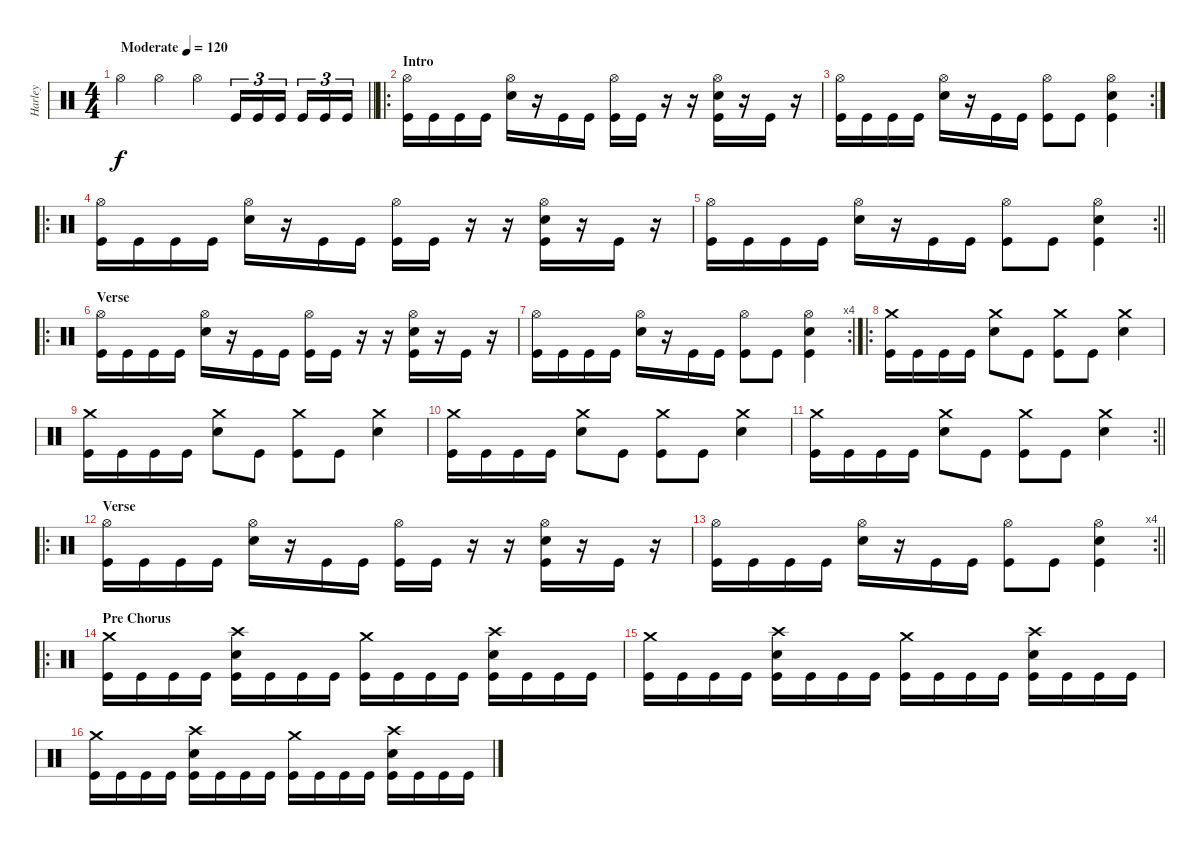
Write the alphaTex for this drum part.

\track ("Harley" "Harley") {instrument percussion}
\staff {score}
\articulation defaults
\ts (4 4)
\tempo (120 "Moderate")
\clef neutral
\barLineRight lightlight
\ks c "Hi-Hat (open)".4{dy f} "Hi-Hat (open)".4 "Hi-Hat (open)".4 "Kick (hit)".16{tu (3 2)} "Kick (hit)".16{tu (3 2)} "Kick (hit)".16{tu (3 2) beam splitsecondary} "Kick (hit)".16{tu (3 2)} "Kick (hit)".16{tu (3 2)} "Kick (hit)".16{tu (3 2)}
|
\ro
\section ("" "Intro")
("Hi-Hat (open)" "Kick (hit)").16 "Kick (hit)".16 "Kick (hit)".16 "Kick (hit)".16 ("Hi-Hat (open)" "Snare (hit) 2").16 r.16 "Kick (hit)".16 "Kick (hit)".16 ("Hi-Hat (open)" "Kick (hit)").16 "Kick (hit)".16 r.16 r.16 ("Hi-Hat (open)" "Snare (hit) 2" "Kick (hit)").16 r.16 "Kick (hit)".16 r.16 |
\rc 2
("Hi-Hat (open)" "Kick (hit)").16 "Kick (hit)".16 "Kick (hit)".16 "Kick (hit)".16 ("Hi-Hat (open)" "Snare (hit) 2").16 r.16 "Kick (hit)".16 "Kick (hit)".16 ("Hi-Hat (open)" "Kick (hit)").8 "Kick (hit)".8 ("Hi-Hat (open)" "Snare (hit) 2" "Kick (hit)").4 |
\ro
("Hi-Hat (open)" "Kick (hit)").16 "Kick (hit)".16 "Kick (hit)".16 "Kick (hit)".16 ("Hi-Hat (open)" "Snare (hit) 2").16 r.16 "Kick (hit)".16 "Kick (hit)".16 ("Hi-Hat (open)" "Kick (hit)").16 "Kick (hit)".16 r.16 r.16 ("Hi-Hat (open)" "Snare (hit) 2" "Kick (hit)").16 r.16 "Kick (hit)".16 r.16 |
\rc 2
\barLineRight lightlight
("Hi-Hat (open)" "Kick (hit)").16 "Kick (hit)".16 "Kick (hit)".16 "Kick (hit)".16 ("Hi-Hat (open)" "Snare (hit) 2").16 r.16 "Kick (hit)".16 "Kick (hit)".16 ("Hi-Hat (open)" "Kick (hit)").8 "Kick (hit)".8 ("Hi-Hat (open)" "Snare (hit) 2" "Kick (hit)").4 |
\ro
\section ("" "Verse")
("Hi-Hat (open)" "Kick (hit)").16 "Kick (hit)".16 "Kick (hit)".16 "Kick (hit)".16 ("Hi-Hat (open)" "Snare (hit) 2").16 r.16 "Kick (hit)".16 "Kick (hit)".16 ("Hi-Hat (open)" "Kick (hit)").16 "Kick (hit)".16 r.16 r.16 ("Hi-Hat (open)" "Snare (hit) 2" "Kick (hit)").16 r.16 "Kick (hit)".16 r.16 |
\rc 4
("Hi-Hat (open)" "Kick (hit)").16 "Kick (hit)".16 "Kick (hit)".16 "Kick (hit)".16 ("Hi-Hat (open)" "Snare (hit) 2").16 r.16 "Kick (hit)".16 "Kick (hit)".16 ("Hi-Hat (open)" "Kick (hit)").8 "Kick (hit)".8 ("Hi-Hat (open)" "Snare (hit) 2" "Kick (hit)").4 |
\ro
("Crash medium (hit)" "Kick (hit)").16 "Kick (hit)".16 "Kick (hit)".16 "Kick (hit)".16 ("Crash medium (hit)" "Snare (hit) 2").8 "Kick (hit)".8 ("Crash medium (hit)" "Kick (hit)").8 "Kick (hit)".8 ("Crash medium (hit)" "Snare (hit) 2").4 |
("Crash medium (hit)" "Kick (hit)").16 "Kick (hit)".16 "Kick (hit)".16 "Kick (hit)".16 ("Crash medium (hit)" "Snare (hit) 2").8 "Kick (hit)".8 ("Crash medium (hit)" "Kick (hit)").8 "Kick (hit)".8 ("Crash medium (hit)" "Snare (hit) 2").4 |
("Crash medium (hit)" "Kick (hit)").16 "Kick (hit)".16 "Kick (hit)".16 "Kick (hit)".16 ("Crash medium (hit)" "Snare (hit) 2").8 "Kick (hit)".8 ("Crash medium (hit)" "Kick (hit)").8 "Kick (hit)".8 ("Crash medium (hit)" "Snare (hit) 2").4 |
\rc 2
\barLineRight lightlight
("Crash medium (hit)" "Kick (hit)").16 "Kick (hit)".16 "Kick (hit)".16 "Kick (hit)".16 ("Crash medium (hit)" "Snare (hit) 2").8 "Kick (hit)".8 ("Crash medium (hit)" "Kick (hit)").8 "Kick (hit)".8 ("Crash medium (hit)" "Snare (hit) 2").4 |
\ro
\section ("" "Verse")
("Hi-Hat (open)" "Kick (hit)").16 "Kick (hit)".16 "Kick (hit)".16 "Kick (hit)".16 ("Hi-Hat (open)" "Snare (hit) 2").16 r.16 "Kick (hit)".16 "Kick (hit)".16 ("Hi-Hat (open)" "Kick (hit)").16 "Kick (hit)".16 r.16 r.16 ("Hi-Hat (open)" "Snare (hit) 2" "Kick (hit)").16 r.16 "Kick (hit)".16 r.16 |
\rc 4
\barLineRight lightlight
("Hi-Hat (open)" "Kick (hit)").16 "Kick (hit)".16 "Kick (hit)".16 "Kick (hit)".16 ("Hi-Hat (open)" "Snare (hit) 2").16 r.16 "Kick (hit)".16 "Kick (hit)".16 ("Hi-Hat (open)" "Kick (hit)").8 "Kick (hit)".8 ("Hi-Hat (open)" "Snare (hit) 2" "Kick (hit)").4 |
\ro
\section ("" "Pre Chorus")
("Crash medium (hit)" "Kick (hit)").16 "Kick (hit)".16 "Kick (hit)".16 "Kick (hit)".16 ("Crash high (hit)" "Snare (hit) 2" "Kick (hit)").16 "Kick (hit)".16 "Kick (hit)".16 "Kick (hit)".16 ("Crash medium (hit)" "Kick (hit)").16 "Kick (hit)".16 "Kick (hit)".16 "Kick (hit)".16 ("Crash high (hit)" "Snare (hit) 2" "Kick (hit)").16 "Kick (hit)".16 "Kick (hit)".16 "Kick (hit)".16 |
("Crash medium (hit)" "Kick (hit)").16 "Kick (hit)".16 "Kick (hit)".16 "Kick (hit)".16 ("Crash high (hit)" "Snare (hit) 2" "Kick (hit)").16 "Kick (hit)".16 "Kick (hit)".16 "Kick (hit)".16 ("Crash medium (hit)" "Kick (hit)").16 "Kick (hit)".16 "Kick (hit)".16 "Kick (hit)".16 ("Crash high (hit)" "Snare (hit) 2" "Kick (hit)").16 "Kick (hit)".16 "Kick (hit)".16 "Kick (hit)".16 |
("Crash medium (hit)" "Kick (hit)").16 "Kick (hit)".16 "Kick (hit)".16 "Kick (hit)".16 ("Crash high (hit)" "Snare (hit) 2" "Kick (hit)").16 "Kick (hit)".16 "Kick (hit)".16 "Kick (hit)".16 ("Crash medium (hit)" "Kick (hit)").16 "Kick (hit)".16 "Kick (hit)".16 "Kick (hit)".16 ("Crash high (hit)" "Snare (hit) 2" "Kick (hit)").16 "Kick (hit)".16 "Kick (hit)".16 "Kick (hit)".16
